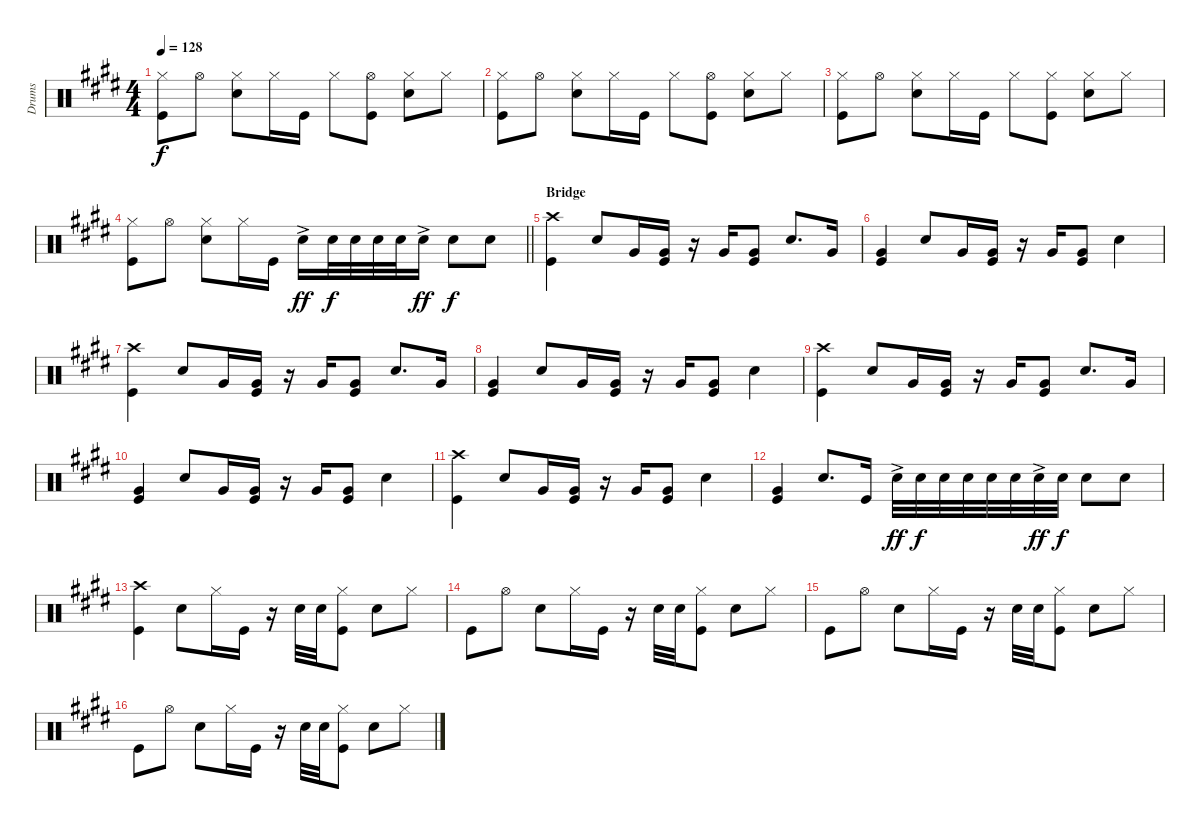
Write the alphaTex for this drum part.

\track ("Drums" "Drums") {instrument percussion}
\staff {score}
\articulation defaults
\ts (4 4)
\tempo 128
\clef neutral
\ks c#minor
("Hi-Hat (closed)" "Kick (hit)").8{dy f} "Hi-Hat (open)".8 ("Hi-Hat (closed)" "Snare (hit) 2").8 "Hi-Hat (closed)".16 "Kick (hit)".16 "Hi-Hat (closed)".8 ("Hi-Hat (open)" "Kick (hit)").8 ("Hi-Hat (closed)" "Snare (hit) 2").8 "Hi-Hat (closed)".8 |
("Hi-Hat (closed)" "Kick (hit)").8 "Hi-Hat (open)".8 ("Hi-Hat (closed)" "Snare (hit) 2").8 "Hi-Hat (closed)".16 "Kick (hit)".16 "Hi-Hat (closed)".8 ("Hi-Hat (open)" "Kick (hit)").8 ("Hi-Hat (closed)" "Snare (hit) 2").8 "Hi-Hat (closed)".8 |
("Hi-Hat (closed)" "Kick (hit)").8 "Hi-Hat (open)".8 ("Hi-Hat (closed)" "Snare (hit) 2").8 "Hi-Hat (closed)".16 "Kick (hit)".16 "Hi-Hat (closed)".8 ("Hi-Hat (closed)" "Kick (hit)").8 ("Hi-Hat (closed)" "Snare (hit) 2").8 "Hi-Hat (closed)".8 |
\barLineRight lightlight
("Hi-Hat (closed)" "Kick (hit)").8 "Hi-Hat (open)".8 ("Hi-Hat (closed)" "Snare (hit) 2").8 "Hi-Hat (closed)".16 "Kick (hit)".16 "Snare (hit) 2"{ac}.16{dy ff} "Snare (hit) 2".32{dy f} "Snare (hit) 2".32 "Snare (hit) 2".32 "Snare (hit) 2".32 "Snare (hit) 2"{ac}.16{dy ff} "Snare (hit) 2".8{dy f} "Snare (hit) 2".8 |
\section ("" "Bridge")
("Crash high (hit)" "Kick (hit)").4 "Snare (hit) 2".8 "Very Low Tom (hit)".16 ("Very Low Tom (hit)" "Kick (hit)").16 r.16 "Very Low Tom (hit)".16 ("Very Low Tom (hit)" "Kick (hit)").8 "Snare (hit) 2".8{d} "Very Low Tom (hit)".16 |
("Very Low Tom (hit)" "Kick (hit)").4 "Snare (hit) 2".8 "Very Low Tom (hit)".16 ("Very Low Tom (hit)" "Kick (hit)").16 r.16 "Very Low Tom (hit)".16 ("Very Low Tom (hit)" "Kick (hit)").8 "Snare (hit) 2".4 |
("Crash high (hit)" "Kick (hit)").4 "Snare (hit) 2".8 "Very Low Tom (hit)".16 ("Very Low Tom (hit)" "Kick (hit)").16 r.16 "Very Low Tom (hit)".16 ("Very Low Tom (hit)" "Kick (hit)").8 "Snare (hit) 2".8{d} "Very Low Tom (hit)".16 |
("Very Low Tom (hit)" "Kick (hit)").4 "Snare (hit) 2".8 "Very Low Tom (hit)".16 ("Very Low Tom (hit)" "Kick (hit)").16 r.16 "Very Low Tom (hit)".16 ("Very Low Tom (hit)" "Kick (hit)").8 "Snare (hit) 2".4 |
("Crash high (hit)" "Kick (hit)").4 "Snare (hit) 2".8 "Very Low Tom (hit)".16 ("Very Low Tom (hit)" "Kick (hit)").16 r.16 "Very Low Tom (hit)".16 ("Very Low Tom (hit)" "Kick (hit)").8 "Snare (hit) 2".8{d} "Very Low Tom (hit)".16 |
("Very Low Tom (hit)" "Kick (hit)").4 "Snare (hit) 2".8 "Very Low Tom (hit)".16 ("Very Low Tom (hit)" "Kick (hit)").16 r.16 "Very Low Tom (hit)".16 ("Very Low Tom (hit)" "Kick (hit)").8 "Snare (hit) 2".4 |
("Crash high (hit)" "Kick (hit)").4 "Snare (hit) 2".8 "Very Low Tom (hit)".16 ("Very Low Tom (hit)" "Kick (hit)").16 r.16 "Very Low Tom (hit)".16 ("Very Low Tom (hit)" "Kick (hit)").8 "Snare (hit) 2".4 |
("Very Low Tom (hit)" "Kick (hit)").4 "Snare (hit) 2".8{d} "Kick (hit)".16 "Snare (hit) 2"{ac}.32{dy ff} "Snare (hit) 2".32{dy f} "Snare (hit) 2".32 "Snare (hit) 2".32 "Snare (hit) 2".32 "Snare (hit) 2".32 "Snare (hit) 2"{ac}.32{dy ff} "Snare (hit) 2".32{dy f} "Snare (hit) 2".8 "Snare (hit) 2".8 |
("Crash high (hit)" "Kick (hit)").4 "Snare (hit) 2".8 "Hi-Hat (closed)".16 "Kick (hit)".16 r.16 "Snare (hit) 2".32 "Snare (hit) 2".32 ("Kick (hit)" "Hi-Hat (closed)").8 "Snare (hit) 2".8 "Hi-Hat (closed)".8 |
"Kick (hit)".8 "Hi-Hat (open)".8 "Snare (hit) 2".8 "Hi-Hat (closed)".16 "Kick (hit)".16 r.16 "Snare (hit) 2".32 "Snare (hit) 2".32 ("Kick (hit)" "Hi-Hat (closed)").8 "Snare (hit) 2".8 "Hi-Hat (closed)".8 |
"Kick (hit)".8 "Hi-Hat (open)".8 "Snare (hit) 2".8 "Hi-Hat (closed)".16 "Kick (hit)".16 r.16 "Snare (hit) 2".32 "Snare (hit) 2".32 ("Kick (hit)" "Hi-Hat (closed)").8 "Snare (hit) 2".8 "Hi-Hat (closed)".8 |
"Kick (hit)".8 "Hi-Hat (open)".8 "Snare (hit) 2".8 "Hi-Hat (closed)".16 "Kick (hit)".16 r.16 "Snare (hit) 2".32 "Snare (hit) 2".32 ("Kick (hit)" "Hi-Hat (closed)").8 "Snare (hit) 2".8 "Hi-Hat (closed)".8
